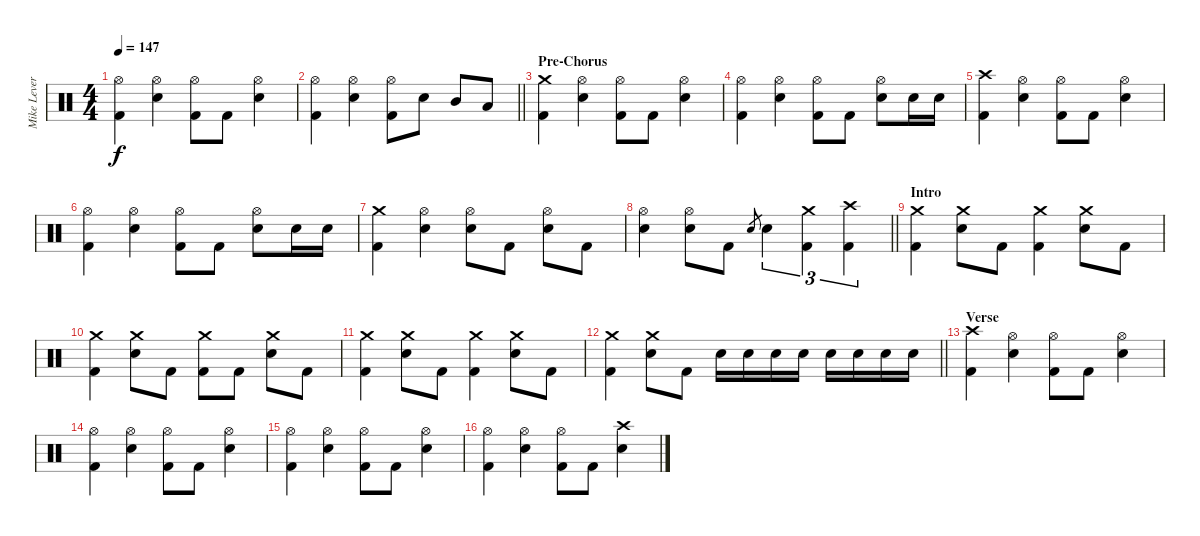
\track ("Mike Leverence - Drums" "Mike Lever") {instrument percussion}
\staff {score}
\articulation defaults
\ts (4 4)
\tempo 147
\clef neutral
\ks c
("Hi-Hat (open)" "Kick (hit) 2").4{dy f} ("Hi-Hat (open)" "Electric Snare (hit)").4 ("Hi-Hat (open)" "Kick (hit) 2").8 "Kick (hit) 2".8 ("Hi-Hat (open)" "Electric Snare (hit)").4 |
\barLineRight lightlight
("Hi-Hat (open)" "Kick (hit) 2").4 ("Hi-Hat (open)" "Electric Snare (hit)").4 ("Hi-Hat (open)" "Kick (hit) 2").8 "Electric Snare (hit)".8 "Mid Tom (hit)".8 "Low Tom (hit)".8 |
\section ("" "Pre-Chorus")
("Crash medium (hit)" "Kick (hit) 2").4 ("Hi-Hat (open)" "Electric Snare (hit)").4 ("Hi-Hat (open)" "Kick (hit) 2").8 "Kick (hit) 2".8 ("Hi-Hat (open)" "Electric Snare (hit)").4 |
("Hi-Hat (open)" "Kick (hit) 2").4 ("Hi-Hat (open)" "Electric Snare (hit)").4 ("Hi-Hat (open)" "Kick (hit) 2").8 "Kick (hit) 2".8 ("Hi-Hat (open)" "Electric Snare (hit)").8 "Electric Snare (hit)".16 "Electric Snare (hit)".16 |
("Crash high (hit)" "Kick (hit) 2").4 ("Hi-Hat (open)" "Electric Snare (hit)").4 ("Hi-Hat (open)" "Kick (hit) 2").8 "Kick (hit) 2".8 ("Hi-Hat (open)" "Electric Snare (hit)").4 |
("Hi-Hat (open)" "Kick (hit) 2").4 ("Hi-Hat (open)" "Electric Snare (hit)").4 ("Hi-Hat (open)" "Kick (hit) 2").8 "Kick (hit) 2".8 ("Hi-Hat (open)" "Electric Snare (hit)").8 "Electric Snare (hit)".16 "Electric Snare (hit)".16 |
("Crash medium (hit)" "Kick (hit) 2").4 ("Hi-Hat (open)" "Electric Snare (hit)").4 ("Hi-Hat (open)" "Electric Snare (hit)").8 "Kick (hit) 2".8 ("Hi-Hat (open)" "Electric Snare (hit)").8 "Kick (hit) 2".8 |
\barLineRight lightlight
("Hi-Hat (open)" "Electric Snare (hit)").4 ("Hi-Hat (open)" "Electric Snare (hit)").8 "Kick (hit) 2".8 "Electric Snare (hit)".8{gr} "Electric Snare (hit)".4{tu (3 2)} ("Crash medium (hit)" "Kick (hit) 2").4{tu (3 2)} ("Crash high (hit)" "Kick (hit) 2").4{tu (3 2)} |
\section ("" "Intro")
("Crash medium (hit)" "Kick (hit) 2").4 ("Crash medium (hit)" "Electric Snare (hit)").8 "Kick (hit) 2".8 ("Crash medium (hit)" "Kick (hit) 2").4 ("Crash medium (hit)" "Electric Snare (hit)").8 "Kick (hit) 2".8 |
("Crash medium (hit)" "Kick (hit) 2").4 ("Crash medium (hit)" "Electric Snare (hit)").8 "Kick (hit) 2".8 ("Crash medium (hit)" "Kick (hit) 2").8 "Kick (hit) 2".8 ("Crash medium (hit)" "Electric Snare (hit)").8 "Kick (hit) 2".8 |
("Crash medium (hit)" "Kick (hit) 2").4 ("Crash medium (hit)" "Electric Snare (hit)").8 "Kick (hit) 2".8 ("Crash medium (hit)" "Kick (hit) 2").4 ("Crash medium (hit)" "Electric Snare (hit)").8 "Kick (hit) 2".8 |
\barLineRight lightlight
("Crash medium (hit)" "Kick (hit) 2").4 ("Crash medium (hit)" "Electric Snare (hit)").8 "Kick (hit) 2".8 "Electric Snare (hit)".16{volume 7} "Electric Snare (hit)".16{volume 12} "Electric Snare (hit)".16 "Electric Snare (hit)".16 "Electric Snare (hit)".16 "Electric Snare (hit)".16 "Electric Snare (hit)".16 "Electric Snare (hit)".16 |
\section ("" "Verse")
("Crash high (hit)" "Kick (hit) 2").4 ("Hi-Hat (open)" "Electric Snare (hit)").4 ("Hi-Hat (open)" "Kick (hit) 2").8 "Kick (hit) 2".8 ("Hi-Hat (open)" "Electric Snare (hit)").4 |
("Hi-Hat (open)" "Kick (hit) 2").4 ("Hi-Hat (open)" "Electric Snare (hit)").4 ("Hi-Hat (open)" "Kick (hit) 2").8 "Kick (hit) 2".8 ("Hi-Hat (open)" "Electric Snare (hit)").4 |
("Hi-Hat (open)" "Kick (hit) 2").4 ("Hi-Hat (open)" "Electric Snare (hit)").4 ("Hi-Hat (open)" "Kick (hit) 2").8 "Kick (hit) 2".8 ("Hi-Hat (open)" "Electric Snare (hit)").4 |
("Hi-Hat (open)" "Kick (hit) 2").4 ("Hi-Hat (open)" "Electric Snare (hit)").4 ("Hi-Hat (open)" "Kick (hit) 2").8 "Kick (hit) 2".8 ("Crash high (hit)" "Electric Snare (hit)").4
